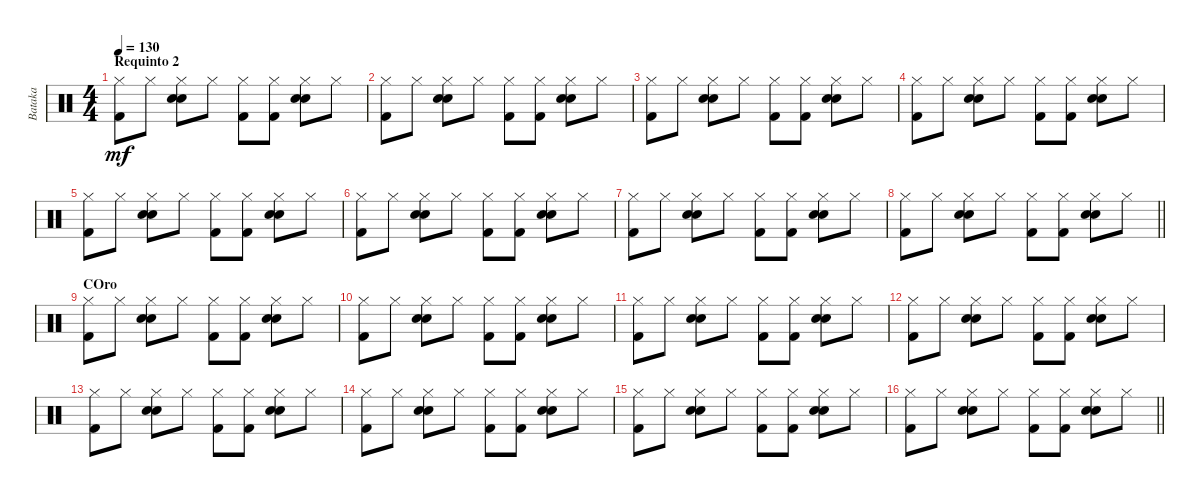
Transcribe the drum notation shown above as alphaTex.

\track ("Bataka" "Bataka") {instrument percussion}
\staff
\articulation defaults
\ts (4 4)
\section ("" "Requinto 2")
\tempo 130
\clef neutral
\ks c
("Hi-Hat (closed)" "Kick (hit) 2").8{dy mf volume 8} "Hi-Hat (closed)".8 ("Hi-Hat (closed)" "Electric Snare (hit)" "Snare (hit) 2").8 "Hi-Hat (closed)".8 ("Hi-Hat (closed)" "Kick (hit) 2").8 ("Hi-Hat (closed)" "Kick (hit) 2").8 ("Hi-Hat (closed)" "Electric Snare (hit)" "Snare (hit) 2").8 "Hi-Hat (closed)".8 |
("Hi-Hat (closed)" "Kick (hit) 2").8 "Hi-Hat (closed)".8 ("Hi-Hat (closed)" "Electric Snare (hit)" "Snare (hit) 2").8 "Hi-Hat (closed)".8 ("Hi-Hat (closed)" "Kick (hit) 2").8 ("Hi-Hat (closed)" "Kick (hit) 2").8 ("Hi-Hat (closed)" "Electric Snare (hit)" "Snare (hit) 2").8 "Hi-Hat (closed)".8 |
("Hi-Hat (closed)" "Kick (hit) 2").8 "Hi-Hat (closed)".8 ("Hi-Hat (closed)" "Electric Snare (hit)" "Snare (hit) 2").8 "Hi-Hat (closed)".8 ("Hi-Hat (closed)" "Kick (hit) 2").8 ("Hi-Hat (closed)" "Kick (hit) 2").8 ("Hi-Hat (closed)" "Electric Snare (hit)" "Snare (hit) 2").8 "Hi-Hat (closed)".8 |
("Hi-Hat (closed)" "Kick (hit) 2").8 "Hi-Hat (closed)".8 ("Hi-Hat (closed)" "Electric Snare (hit)" "Snare (hit) 2").8 "Hi-Hat (closed)".8 ("Hi-Hat (closed)" "Kick (hit) 2").8 ("Hi-Hat (closed)" "Kick (hit) 2").8 ("Hi-Hat (closed)" "Electric Snare (hit)" "Snare (hit) 2").8 "Hi-Hat (closed)".8 |
("Hi-Hat (closed)" "Kick (hit) 2").8 "Hi-Hat (closed)".8 ("Hi-Hat (closed)" "Electric Snare (hit)" "Snare (hit) 2").8 "Hi-Hat (closed)".8 ("Hi-Hat (closed)" "Kick (hit) 2").8 ("Hi-Hat (closed)" "Kick (hit) 2").8 ("Hi-Hat (closed)" "Electric Snare (hit)" "Snare (hit) 2").8 "Hi-Hat (closed)".8 |
("Hi-Hat (closed)" "Kick (hit) 2").8 "Hi-Hat (closed)".8 ("Hi-Hat (closed)" "Electric Snare (hit)" "Snare (hit) 2").8 "Hi-Hat (closed)".8 ("Hi-Hat (closed)" "Kick (hit) 2").8 ("Hi-Hat (closed)" "Kick (hit) 2").8 ("Hi-Hat (closed)" "Electric Snare (hit)" "Snare (hit) 2").8 "Hi-Hat (closed)".8 |
("Hi-Hat (closed)" "Kick (hit) 2").8 "Hi-Hat (closed)".8 ("Hi-Hat (closed)" "Electric Snare (hit)" "Snare (hit) 2").8 "Hi-Hat (closed)".8 ("Hi-Hat (closed)" "Kick (hit) 2").8 ("Hi-Hat (closed)" "Kick (hit) 2").8 ("Hi-Hat (closed)" "Electric Snare (hit)" "Snare (hit) 2").8 "Hi-Hat (closed)".8 |
\barLineRight lightlight
("Hi-Hat (closed)" "Kick (hit) 2").8 "Hi-Hat (closed)".8 ("Hi-Hat (closed)" "Electric Snare (hit)" "Snare (hit) 2").8 "Hi-Hat (closed)".8 ("Hi-Hat (closed)" "Kick (hit) 2").8 ("Hi-Hat (closed)" "Kick (hit) 2").8 ("Hi-Hat (closed)" "Electric Snare (hit)" "Snare (hit) 2").8 "Hi-Hat (closed)".8 |
\section ("" "COro")
("Hi-Hat (closed)" "Kick (hit) 2").8 "Hi-Hat (closed)".8 ("Hi-Hat (closed)" "Electric Snare (hit)" "Snare (hit) 2").8 "Hi-Hat (closed)".8 ("Hi-Hat (closed)" "Kick (hit) 2").8 ("Hi-Hat (closed)" "Kick (hit) 2").8 ("Hi-Hat (closed)" "Electric Snare (hit)" "Snare (hit) 2").8 "Hi-Hat (closed)".8 |
("Hi-Hat (closed)" "Kick (hit) 2").8 "Hi-Hat (closed)".8 ("Hi-Hat (closed)" "Electric Snare (hit)" "Snare (hit) 2").8 "Hi-Hat (closed)".8 ("Hi-Hat (closed)" "Kick (hit) 2").8 ("Hi-Hat (closed)" "Kick (hit) 2").8 ("Hi-Hat (closed)" "Electric Snare (hit)" "Snare (hit) 2").8 "Hi-Hat (closed)".8 |
("Hi-Hat (closed)" "Kick (hit) 2").8 "Hi-Hat (closed)".8 ("Hi-Hat (closed)" "Electric Snare (hit)" "Snare (hit) 2").8 "Hi-Hat (closed)".8 ("Hi-Hat (closed)" "Kick (hit) 2").8 ("Hi-Hat (closed)" "Kick (hit) 2").8 ("Hi-Hat (closed)" "Electric Snare (hit)" "Snare (hit) 2").8 "Hi-Hat (closed)".8 |
("Hi-Hat (closed)" "Kick (hit) 2").8 "Hi-Hat (closed)".8 ("Hi-Hat (closed)" "Electric Snare (hit)" "Snare (hit) 2").8 "Hi-Hat (closed)".8 ("Hi-Hat (closed)" "Kick (hit) 2").8 ("Hi-Hat (closed)" "Kick (hit) 2").8 ("Hi-Hat (closed)" "Electric Snare (hit)" "Snare (hit) 2").8 "Hi-Hat (closed)".8 |
("Hi-Hat (closed)" "Kick (hit) 2").8 "Hi-Hat (closed)".8 ("Hi-Hat (closed)" "Electric Snare (hit)" "Snare (hit) 2").8 "Hi-Hat (closed)".8 ("Hi-Hat (closed)" "Kick (hit) 2").8 ("Hi-Hat (closed)" "Kick (hit) 2").8 ("Hi-Hat (closed)" "Electric Snare (hit)" "Snare (hit) 2").8 "Hi-Hat (closed)".8 |
("Hi-Hat (closed)" "Kick (hit) 2").8 "Hi-Hat (closed)".8 ("Hi-Hat (closed)" "Electric Snare (hit)" "Snare (hit) 2").8 "Hi-Hat (closed)".8 ("Hi-Hat (closed)" "Kick (hit) 2").8 ("Hi-Hat (closed)" "Kick (hit) 2").8 ("Hi-Hat (closed)" "Electric Snare (hit)" "Snare (hit) 2").8 "Hi-Hat (closed)".8 |
("Hi-Hat (closed)" "Kick (hit) 2").8 "Hi-Hat (closed)".8 ("Hi-Hat (closed)" "Electric Snare (hit)" "Snare (hit) 2").8 "Hi-Hat (closed)".8 ("Hi-Hat (closed)" "Kick (hit) 2").8 ("Hi-Hat (closed)" "Kick (hit) 2").8 ("Hi-Hat (closed)" "Electric Snare (hit)" "Snare (hit) 2").8 "Hi-Hat (closed)".8 |
\barLineRight lightlight
("Hi-Hat (closed)" "Kick (hit) 2").8 "Hi-Hat (closed)".8 ("Hi-Hat (closed)" "Electric Snare (hit)" "Snare (hit) 2").8 "Hi-Hat (closed)".8 ("Hi-Hat (closed)" "Kick (hit) 2").8 ("Hi-Hat (closed)" "Kick (hit) 2").8 ("Hi-Hat (closed)" "Electric Snare (hit)" "Snare (hit) 2").8 "Hi-Hat (closed)".8
